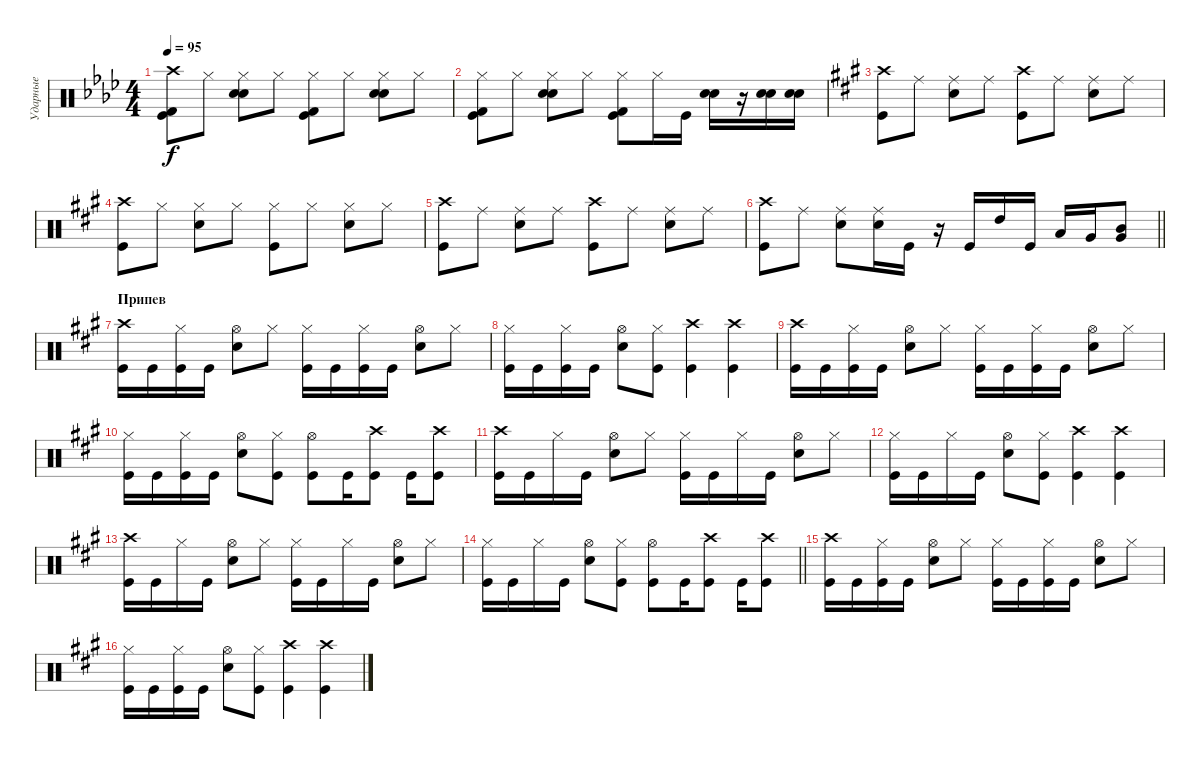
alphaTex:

\track ("Ударные" "Ударные") {instrument percussion}
\staff {score}
\articulation defaults
\ts (4 4)
\tempo 95
\clef neutral
\ks ab
("Crash high (hit)" "Kick (hit) 2" "Kick (hit)").8{dy f} "Hi-Hat (closed)".8 ("Hi-Hat (closed)" "Electric Snare (hit)" "Snare (hit) 2").8 "Hi-Hat (closed)".8 ("Hi-Hat (closed)" "Kick (hit) 2" "Kick (hit)").8 "Hi-Hat (closed)".8 ("Hi-Hat (closed)" "Electric Snare (hit)" "Snare (hit) 2").8 "Hi-Hat (closed)".8 |
("Hi-Hat (closed)" "Kick (hit) 2" "Kick (hit)").8 "Hi-Hat (closed)".8 ("Hi-Hat (closed)" "Electric Snare (hit)" "Snare (hit) 2").8 "Hi-Hat (closed)".8 ("Hi-Hat (closed)" "Kick (hit) 2" "Kick (hit)").8 "Hi-Hat (closed)".16 "Kick (hit)".16 ("Electric Snare (hit)" "Snare (hit) 2").16 r.16 ("Electric Snare (hit)" "Snare (hit) 2").16 ("Electric Snare (hit)" "Snare (hit) 2").16 |
\ks a
("Crash high (hit)" "Kick (hit)").8 "Ride (middle)".8 ("Ride (middle)" "Snare (hit) 2").8 "Ride (middle)".8 ("Crash high (hit)" "Kick (hit)").8 "Ride (middle)".8 ("Ride (middle)" "Snare (hit) 2").8 "Ride (middle)".8 |
("Crash high (hit)" "Kick (hit)").8 "Hi-Hat (closed)".8 ("Hi-Hat (closed)" "Snare (hit) 2").8 "Hi-Hat (closed)".8 ("Hi-Hat (closed)" "Kick (hit)").8 "Hi-Hat (closed)".8 ("Hi-Hat (closed)" "Snare (hit) 2").8 "Hi-Hat (closed)".8 |
("Crash high (hit)" "Kick (hit)").8 "Ride (middle)".8 ("Ride (middle)" "Snare (hit) 2").8 "Ride (middle)".8 ("Crash high (hit)" "Kick (hit)").8 "Ride (middle)".8 ("Ride (middle)" "Snare (hit) 2").8 "Ride (middle)".8 |
\barLineRight lightlight
("Crash high (hit)" "Kick (hit)").8 "Ride (middle)".8 ("Ride (middle)" "Snare (hit) 2").8 ("Ride (middle)" "Snare (hit) 2").16 "Kick (hit)".16 r.16 "Kick (hit)".16 "High Tom (hit)".16 "Kick (hit)".16 "Low Tom (hit)".16 "Very Low Tom (hit)".16 ("Very Low Tom (hit)" "Mid Tom (hit)").8 |
\section ("" "Припев")
("Crash high (hit)" "Kick (hit)").16 "Kick (hit)".16 ("Hi-Hat (closed)" "Kick (hit)").16 "Kick (hit)".16 ("Hi-Hat (open)" "Snare (hit) 2").8 "Hi-Hat (closed)".8 ("Hi-Hat (closed)" "Kick (hit)").16 "Kick (hit)".16 ("Hi-Hat (closed)" "Kick (hit)").16 "Kick (hit)".16 ("Hi-Hat (open)" "Snare (hit) 2").8 "Hi-Hat (closed)".8 |
("Hi-Hat (closed)" "Kick (hit)").16 "Kick (hit)".16 ("Hi-Hat (closed)" "Kick (hit)").16 "Kick (hit)".16 ("Hi-Hat (open)" "Snare (hit) 2").8 ("Hi-Hat (closed)" "Kick (hit)").8 ("Crash high (hit)" "Kick (hit)").4 ("Crash high (hit)" "Kick (hit)").4 |
("Crash high (hit)" "Kick (hit)").16 "Kick (hit)".16 ("Hi-Hat (closed)" "Kick (hit)").16 "Kick (hit)".16 ("Hi-Hat (open)" "Snare (hit) 2").8 "Hi-Hat (closed)".8 ("Hi-Hat (closed)" "Kick (hit)").16 "Kick (hit)".16 ("Hi-Hat (closed)" "Kick (hit)").16 "Kick (hit)".16 ("Hi-Hat (open)" "Snare (hit) 2").8 "Hi-Hat (closed)".8 |
("Hi-Hat (closed)" "Kick (hit)").16 "Kick (hit)".16 ("Hi-Hat (closed)" "Kick (hit)").16 "Kick (hit)".16 ("Hi-Hat (open)" "Snare (hit) 2").8 ("Hi-Hat (closed)" "Kick (hit)").8 ("Hi-Hat (open)" "Kick (hit)").8 "Kick (hit)".16 ("Crash high (hit)" "Kick (hit)").8 "Kick (hit)".16 ("Crash high (hit)" "Kick (hit)").8 |
("Crash high (hit)" "Kick (hit)").16 "Kick (hit)".16 "Hi-Hat (closed)".16 "Kick (hit)".16 ("Hi-Hat (open)" "Snare (hit) 2").8 "Hi-Hat (closed)".8 ("Hi-Hat (closed)" "Kick (hit)").16 "Kick (hit)".16 "Hi-Hat (closed)".16 "Kick (hit)".16 ("Hi-Hat (open)" "Snare (hit) 2").8 "Hi-Hat (closed)".8 |
("Hi-Hat (closed)" "Kick (hit)").16 "Kick (hit)".16 "Hi-Hat (closed)".16 "Kick (hit)".16 ("Hi-Hat (open)" "Snare (hit) 2").8 ("Hi-Hat (closed)" "Kick (hit)").8 ("Crash high (hit)" "Kick (hit)").4 ("Crash high (hit)" "Kick (hit)").4 |
("Crash high (hit)" "Kick (hit)").16 "Kick (hit)".16 "Hi-Hat (closed)".16 "Kick (hit)".16 ("Hi-Hat (open)" "Snare (hit) 2").8 "Hi-Hat (closed)".8 ("Hi-Hat (closed)" "Kick (hit)").16 "Kick (hit)".16 "Hi-Hat (closed)".16 "Kick (hit)".16 ("Hi-Hat (open)" "Snare (hit) 2").8 "Hi-Hat (closed)".8 |
\barLineRight lightlight
("Hi-Hat (closed)" "Kick (hit)").16 "Kick (hit)".16 "Hi-Hat (closed)".16 "Kick (hit)".16 ("Hi-Hat (open)" "Snare (hit) 2").8 ("Hi-Hat (closed)" "Kick (hit)").8 ("Hi-Hat (open)" "Kick (hit)").8 "Kick (hit)".16 ("Crash high (hit)" "Kick (hit)").8 "Kick (hit)".16 ("Crash high (hit)" "Kick (hit)").8 |
("Crash high (hit)" "Kick (hit)").16 "Kick (hit)".16 ("Hi-Hat (closed)" "Kick (hit)").16 "Kick (hit)".16 ("Hi-Hat (open)" "Snare (hit) 2").8 "Hi-Hat (closed)".8 ("Hi-Hat (closed)" "Kick (hit)").16 "Kick (hit)".16 ("Hi-Hat (closed)" "Kick (hit)").16 "Kick (hit)".16 ("Hi-Hat (open)" "Snare (hit) 2").8 "Hi-Hat (closed)".8 |
("Hi-Hat (closed)" "Kick (hit)").16 "Kick (hit)".16 ("Hi-Hat (closed)" "Kick (hit)").16 "Kick (hit)".16 ("Hi-Hat (open)" "Snare (hit) 2").8 ("Hi-Hat (closed)" "Kick (hit)").8 ("Crash high (hit)" "Kick (hit)").4 ("Crash high (hit)" "Kick (hit)").4
